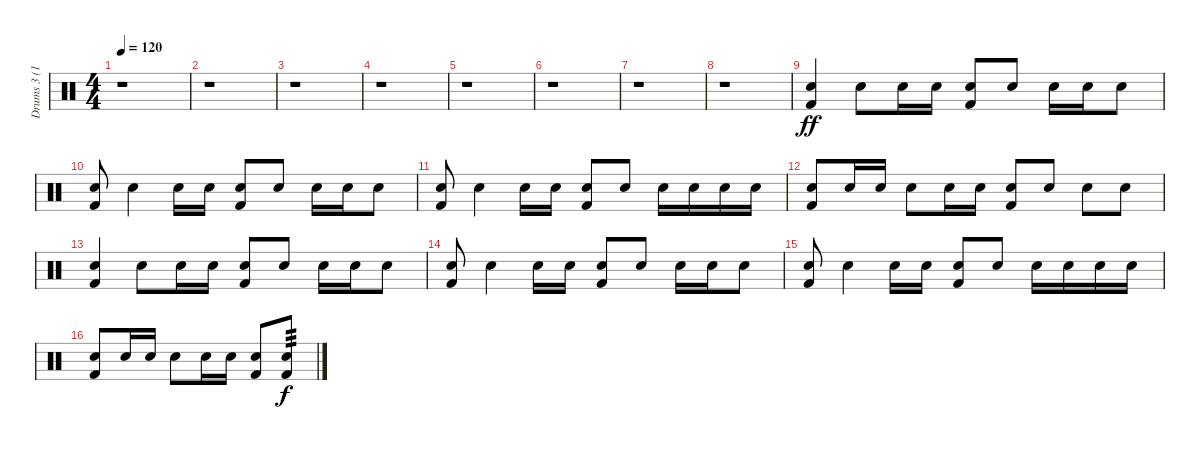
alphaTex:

\track ("Drums 3 (16)" "Drums 3 (1") {instrument percussion}
\staff {score}
\articulation defaults
\ts (4 4)
\tempo 120
\clef neutral
\ks c
r.1{dy ff} |
r.1 |
r.1 |
r.1 |
r.1 |
r.1 |
r.1 |
r.1 |
("Kick (hit) 2" "Electric Snare (hit)").4 "Electric Snare (hit)".8 "Electric Snare (hit)".16 "Electric Snare (hit)".16 ("Kick (hit) 2" "Electric Snare (hit)").8 "Electric Snare (hit)".8 "Electric Snare (hit)".16 "Electric Snare (hit)".16 "Electric Snare (hit)".8 |
("Kick (hit) 2" "Electric Snare (hit)").8 "Electric Snare (hit)".4 "Electric Snare (hit)".16 "Electric Snare (hit)".16 ("Electric Snare (hit)" "Kick (hit) 2").8 "Electric Snare (hit)".8 "Electric Snare (hit)".16 "Electric Snare (hit)".16 "Electric Snare (hit)".8 |
("Kick (hit) 2" "Electric Snare (hit)").8 "Electric Snare (hit)".4 "Electric Snare (hit)".16 "Electric Snare (hit)".16 ("Kick (hit) 2" "Electric Snare (hit)").8 "Electric Snare (hit)".8 "Electric Snare (hit)".16 "Electric Snare (hit)".16 "Electric Snare (hit)".16 "Electric Snare (hit)".16 |
("Kick (hit) 2" "Electric Snare (hit)").8 "Electric Snare (hit)".16 "Electric Snare (hit)".16 "Electric Snare (hit)".8 "Electric Snare (hit)".16 "Electric Snare (hit)".16 ("Kick (hit) 2" "Electric Snare (hit)").8 "Electric Snare (hit)".8 "Electric Snare (hit)".8 "Electric Snare (hit)".8 |
("Kick (hit) 2" "Electric Snare (hit)").4 "Electric Snare (hit)".8 "Electric Snare (hit)".16 "Electric Snare (hit)".16 ("Kick (hit) 2" "Electric Snare (hit)").8 "Electric Snare (hit)".8 "Electric Snare (hit)".16 "Electric Snare (hit)".16 "Electric Snare (hit)".8 |
("Kick (hit) 2" "Electric Snare (hit)").8 "Electric Snare (hit)".4 "Electric Snare (hit)".16 "Electric Snare (hit)".16 ("Electric Snare (hit)" "Kick (hit) 2").8 "Electric Snare (hit)".8 "Electric Snare (hit)".16 "Electric Snare (hit)".16 "Electric Snare (hit)".8 |
("Kick (hit) 2" "Electric Snare (hit)").8 "Electric Snare (hit)".4 "Electric Snare (hit)".16 "Electric Snare (hit)".16 ("Kick (hit) 2" "Electric Snare (hit)").8 "Electric Snare (hit)".8 "Electric Snare (hit)".16 "Electric Snare (hit)".16 "Electric Snare (hit)".16 "Electric Snare (hit)".16 |
("Kick (hit) 2" "Electric Snare (hit)").8 "Electric Snare (hit)".16 "Electric Snare (hit)".16 "Electric Snare (hit)".8 "Electric Snare (hit)".16 "Electric Snare (hit)".16 ("Kick (hit) 2" "Electric Snare (hit)").8 ("Snare (hit) 2" "Kick (hit) 2").8{tp 3 dy f}
